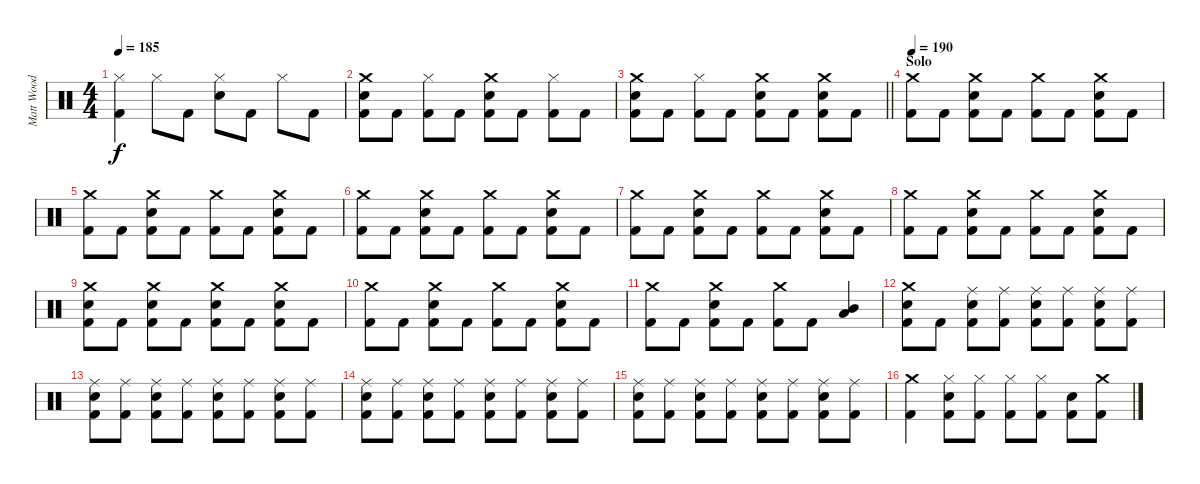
\track ("Matt Wood" "Matt Wood") {instrument percussion}
\staff {score}
\articulation defaults
\ts (4 4)
\tempo 185
\clef neutral
\ks c
("Hi-Hat (closed)" "Kick (hit) 2").4{dy f} "Hi-Hat (closed)".8 "Kick (hit) 2".8 ("Hi-Hat (closed)" "Snare (hit) 2").8 "Kick (hit) 2".8 "Hi-Hat (closed)".8 "Kick (hit) 2".8 |
("Crash medium (hit)" "Snare (hit) 2" "Kick (hit) 2").8 "Kick (hit) 2".8 ("Hi-Hat (closed)" "Kick (hit) 2").8 "Kick (hit) 2".8 ("Crash medium (hit)" "Snare (hit) 2" "Kick (hit) 2").8 "Kick (hit) 2".8 ("Hi-Hat (closed)" "Kick (hit) 2").8 "Kick (hit) 2".8 |
\barLineRight lightlight
("Crash medium (hit)" "Snare (hit) 2" "Kick (hit) 2").8 "Kick (hit) 2".8 ("Hi-Hat (closed)" "Kick (hit) 2").8 "Kick (hit) 2".8 ("Crash medium (hit)" "Snare (hit) 2" "Kick (hit) 2").8 "Kick (hit) 2".8 ("Crash medium (hit)" "Snare (hit) 2" "Kick (hit) 2").8 "Kick (hit) 2".8 |
\section ("" "Solo")
\tempo 190
("Crash medium (hit)" "Kick (hit) 2").8 "Kick (hit) 2".8 ("Crash medium (hit)" "Snare (hit) 2" "Kick (hit) 2").8 "Kick (hit) 2".8 ("Crash medium (hit)" "Kick (hit) 2").8 "Kick (hit) 2".8 ("Crash medium (hit)" "Snare (hit) 2" "Kick (hit) 2").8 "Kick (hit) 2".8 |
("Crash medium (hit)" "Kick (hit) 2").8 "Kick (hit) 2".8 ("Crash medium (hit)" "Snare (hit) 2" "Kick (hit) 2").8 "Kick (hit) 2".8 ("Crash medium (hit)" "Kick (hit) 2").8 "Kick (hit) 2".8 ("Crash medium (hit)" "Snare (hit) 2" "Kick (hit) 2").8 "Kick (hit) 2".8 |
("Crash medium (hit)" "Kick (hit) 2").8 "Kick (hit) 2".8 ("Crash medium (hit)" "Snare (hit) 2" "Kick (hit) 2").8 "Kick (hit) 2".8 ("Crash medium (hit)" "Kick (hit) 2").8 "Kick (hit) 2".8 ("Crash medium (hit)" "Snare (hit) 2" "Kick (hit) 2").8 "Kick (hit) 2".8 |
("Crash medium (hit)" "Kick (hit) 2").8 "Kick (hit) 2".8 ("Crash medium (hit)" "Snare (hit) 2" "Kick (hit) 2").8 "Kick (hit) 2".8 ("Crash medium (hit)" "Kick (hit) 2").8 "Kick (hit) 2".8 ("Crash medium (hit)" "Snare (hit) 2" "Kick (hit) 2").8 "Kick (hit) 2".8 |
("Crash medium (hit)" "Kick (hit) 2").8 "Kick (hit) 2".8 ("Crash medium (hit)" "Snare (hit) 2" "Kick (hit) 2").8 "Kick (hit) 2".8 ("Crash medium (hit)" "Kick (hit) 2").8 "Kick (hit) 2".8 ("Crash medium (hit)" "Snare (hit) 2" "Kick (hit) 2").8 "Kick (hit) 2".8 |
("Crash medium (hit)" "Snare (hit) 2" "Kick (hit) 2").8 "Kick (hit) 2".8 ("Crash medium (hit)" "Snare (hit) 2" "Kick (hit) 2").8 "Kick (hit) 2".8 ("Crash medium (hit)" "Snare (hit) 2" "Kick (hit) 2").8 "Kick (hit) 2".8 ("Crash medium (hit)" "Snare (hit) 2" "Kick (hit) 2").8 "Kick (hit) 2".8 |
("Crash medium (hit)" "Kick (hit) 2").8 "Kick (hit) 2".8 ("Crash medium (hit)" "Snare (hit) 2" "Kick (hit) 2").8 "Kick (hit) 2".8 ("Crash medium (hit)" "Kick (hit) 2").8 "Kick (hit) 2".8 ("Crash medium (hit)" "Snare (hit) 2" "Kick (hit) 2").8 "Kick (hit) 2".8 |
("Crash medium (hit)" "Kick (hit) 2").8 "Kick (hit) 2".8 ("Crash medium (hit)" "Snare (hit) 2" "Kick (hit) 2").8 "Kick (hit) 2".8 ("Crash medium (hit)" "Kick (hit) 2").8 "Kick (hit) 2".8 ("Mid Tom (hit)" "Low Tom (hit)").4 |
("Crash medium (hit)" "Snare (hit) 2" "Kick (hit) 2").8 "Kick (hit) 2".8 ("Ride (middle)" "Snare (hit) 2" "Kick (hit) 2").8 ("Ride (middle)" "Kick (hit) 2").8 ("Ride (middle)" "Snare (hit) 2" "Kick (hit) 2").8 ("Ride (middle)" "Kick (hit) 2").8 ("Ride (middle)" "Snare (hit) 2" "Kick (hit) 2").8 ("Ride (middle)" "Kick (hit) 2").8 |
("Ride (middle)" "Snare (hit) 2" "Kick (hit) 2").8 ("Ride (middle)" "Kick (hit) 2").8 ("Ride (middle)" "Snare (hit) 2" "Kick (hit) 2").8 ("Ride (middle)" "Kick (hit) 2").8 ("Ride (middle)" "Snare (hit) 2" "Kick (hit) 2").8 ("Ride (middle)" "Kick (hit) 2").8 ("Ride (middle)" "Snare (hit) 2" "Kick (hit) 2").8 ("Ride (middle)" "Kick (hit) 2").8 |
("Ride (middle)" "Snare (hit) 2" "Kick (hit) 2").8 ("Ride (middle)" "Kick (hit) 2").8 ("Ride (middle)" "Snare (hit) 2" "Kick (hit) 2").8 ("Ride (middle)" "Kick (hit) 2").8 ("Ride (middle)" "Snare (hit) 2" "Kick (hit) 2").8 ("Ride (middle)" "Kick (hit) 2").8 ("Ride (middle)" "Snare (hit) 2" "Kick (hit) 2").8 ("Ride (middle)" "Kick (hit) 2").8 |
("Ride (middle)" "Snare (hit) 2" "Kick (hit) 2").8 ("Ride (middle)" "Kick (hit) 2").8 ("Ride (middle)" "Snare (hit) 2" "Kick (hit) 2").8 ("Ride (middle)" "Kick (hit) 2").8 ("Ride (middle)" "Snare (hit) 2" "Kick (hit) 2").8 ("Ride (middle)" "Kick (hit) 2").8 ("Ride (middle)" "Snare (hit) 2" "Kick (hit) 2").8 ("Ride (middle)" "Kick (hit) 2").8 |
("Crash medium (hit)" "Kick (hit) 2").4 ("Hi-Hat (closed)" "Snare (hit) 2" "Kick (hit) 2").8 ("Hi-Hat (closed)" "Kick (hit) 2").8 ("Hi-Hat (closed)" "Kick (hit) 2").8 ("Hi-Hat (closed)" "Kick (hit) 2").8 ("Snare (hit) 2" "Kick (hit) 2").8 ("Crash medium (hit)" "Kick (hit) 2").8
